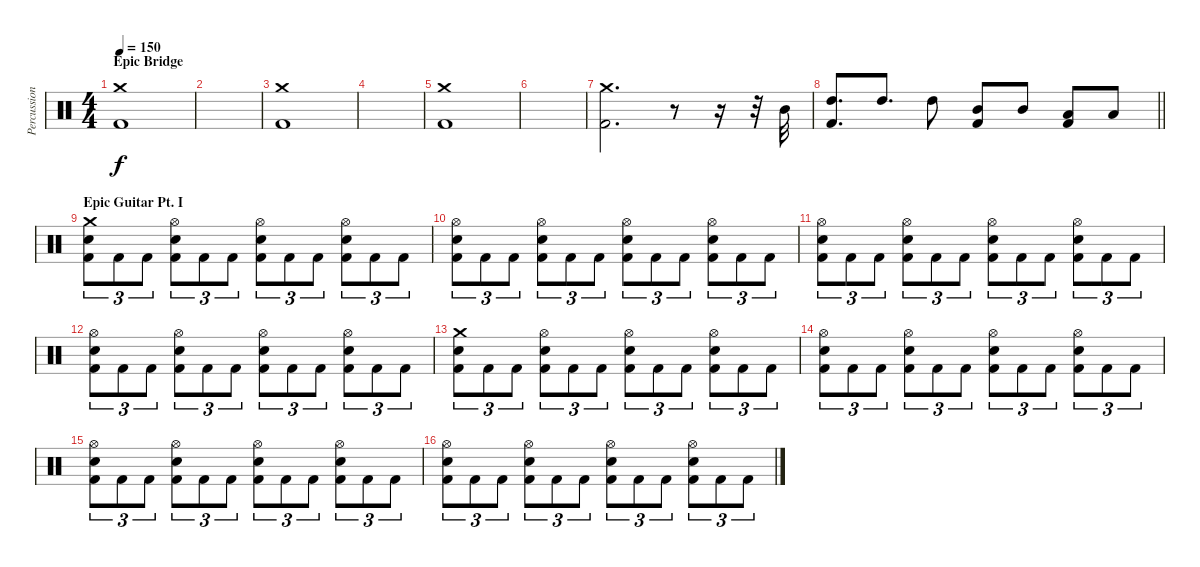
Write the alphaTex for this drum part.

\track ("Percussion" "Percussion") {instrument percussion}
\staff {score}
\articulation defaults
\ts (4 4)
\section ("" "Epic Bridge")
\tempo 150
\clef neutral
\ks c
("Crash medium (hit)" "Kick (hit) 2").1{dy f} |
|
("Crash medium (hit)" "Kick (hit) 2").1 |
|
("Crash medium (hit)" "Kick (hit) 2").1 |
|
("Crash medium (hit)" "Kick (hit) 2").2{d} r.8 r.16 r.32 "Mid Tom (hit)".32 |
\barLineRight lightlight
("High Tom (hit)" "Kick (hit) 2").8{d} "High Tom (hit)".8{d} "High Tom (hit)".8 ("Mid Tom (hit)" "Kick (hit) 2").8 "Mid Tom (hit)".8 ("Low Tom (hit)" "Kick (hit) 2").8 "Low Tom (hit)".8 |
\section ("" "Epic Guitar Pt. I")
("Crash medium (hit)" "Electric Snare (hit)" "Kick (hit) 2").8{tu (3 2)} "Kick (hit) 2".8{tu (3 2)} "Kick (hit) 2".8{tu (3 2)} ("Hi-Hat (open)" "Electric Snare (hit)" "Kick (hit) 2").8{tu (3 2)} "Kick (hit) 2".8{tu (3 2)} "Kick (hit) 2".8{tu (3 2)} ("Hi-Hat (open)" "Electric Snare (hit)" "Kick (hit) 2").8{tu (3 2)} "Kick (hit) 2".8{tu (3 2)} "Kick (hit) 2".8{tu (3 2)} ("Hi-Hat (open)" "Electric Snare (hit)" "Kick (hit) 2").8{tu (3 2)} "Kick (hit) 2".8{tu (3 2)} "Kick (hit) 2".8{tu (3 2)} |
("Hi-Hat (open)" "Electric Snare (hit)" "Kick (hit) 2").8{tu (3 2)} "Kick (hit) 2".8{tu (3 2)} "Kick (hit) 2".8{tu (3 2)} ("Hi-Hat (open)" "Electric Snare (hit)" "Kick (hit) 2").8{tu (3 2)} "Kick (hit) 2".8{tu (3 2)} "Kick (hit) 2".8{tu (3 2)} ("Hi-Hat (open)" "Electric Snare (hit)" "Kick (hit) 2").8{tu (3 2)} "Kick (hit) 2".8{tu (3 2)} "Kick (hit) 2".8{tu (3 2)} ("Hi-Hat (open)" "Electric Snare (hit)" "Kick (hit) 2").8{tu (3 2)} "Kick (hit) 2".8{tu (3 2)} "Kick (hit) 2".8{tu (3 2)} |
("Hi-Hat (open)" "Electric Snare (hit)" "Kick (hit) 2").8{tu (3 2)} "Kick (hit) 2".8{tu (3 2)} "Kick (hit) 2".8{tu (3 2)} ("Hi-Hat (open)" "Electric Snare (hit)" "Kick (hit) 2").8{tu (3 2)} "Kick (hit) 2".8{tu (3 2)} "Kick (hit) 2".8{tu (3 2)} ("Hi-Hat (open)" "Electric Snare (hit)" "Kick (hit) 2").8{tu (3 2)} "Kick (hit) 2".8{tu (3 2)} "Kick (hit) 2".8{tu (3 2)} ("Hi-Hat (open)" "Electric Snare (hit)" "Kick (hit) 2").8{tu (3 2)} "Kick (hit) 2".8{tu (3 2)} "Kick (hit) 2".8{tu (3 2)} |
("Hi-Hat (open)" "Electric Snare (hit)" "Kick (hit) 2").8{tu (3 2)} "Kick (hit) 2".8{tu (3 2)} "Kick (hit) 2".8{tu (3 2)} ("Hi-Hat (open)" "Electric Snare (hit)" "Kick (hit) 2").8{tu (3 2)} "Kick (hit) 2".8{tu (3 2)} "Kick (hit) 2".8{tu (3 2)} ("Hi-Hat (open)" "Electric Snare (hit)" "Kick (hit) 2").8{tu (3 2)} "Kick (hit) 2".8{tu (3 2)} "Kick (hit) 2".8{tu (3 2)} ("Hi-Hat (open)" "Electric Snare (hit)" "Kick (hit) 2").8{tu (3 2)} "Kick (hit) 2".8{tu (3 2)} "Kick (hit) 2".8{tu (3 2)} |
("Crash medium (hit)" "Electric Snare (hit)" "Kick (hit) 2").8{tu (3 2)} "Kick (hit) 2".8{tu (3 2)} "Kick (hit) 2".8{tu (3 2)} ("Hi-Hat (open)" "Electric Snare (hit)" "Kick (hit) 2").8{tu (3 2)} "Kick (hit) 2".8{tu (3 2)} "Kick (hit) 2".8{tu (3 2)} ("Hi-Hat (open)" "Electric Snare (hit)" "Kick (hit) 2").8{tu (3 2)} "Kick (hit) 2".8{tu (3 2)} "Kick (hit) 2".8{tu (3 2)} ("Hi-Hat (open)" "Electric Snare (hit)" "Kick (hit) 2").8{tu (3 2)} "Kick (hit) 2".8{tu (3 2)} "Kick (hit) 2".8{tu (3 2)} |
("Hi-Hat (open)" "Electric Snare (hit)" "Kick (hit) 2").8{tu (3 2)} "Kick (hit) 2".8{tu (3 2)} "Kick (hit) 2".8{tu (3 2)} ("Hi-Hat (open)" "Electric Snare (hit)" "Kick (hit) 2").8{tu (3 2)} "Kick (hit) 2".8{tu (3 2)} "Kick (hit) 2".8{tu (3 2)} ("Hi-Hat (open)" "Electric Snare (hit)" "Kick (hit) 2").8{tu (3 2)} "Kick (hit) 2".8{tu (3 2)} "Kick (hit) 2".8{tu (3 2)} ("Hi-Hat (open)" "Electric Snare (hit)" "Kick (hit) 2").8{tu (3 2)} "Kick (hit) 2".8{tu (3 2)} "Kick (hit) 2".8{tu (3 2)} |
("Hi-Hat (open)" "Electric Snare (hit)" "Kick (hit) 2").8{tu (3 2)} "Kick (hit) 2".8{tu (3 2)} "Kick (hit) 2".8{tu (3 2)} ("Hi-Hat (open)" "Electric Snare (hit)" "Kick (hit) 2").8{tu (3 2)} "Kick (hit) 2".8{tu (3 2)} "Kick (hit) 2".8{tu (3 2)} ("Hi-Hat (open)" "Electric Snare (hit)" "Kick (hit) 2").8{tu (3 2)} "Kick (hit) 2".8{tu (3 2)} "Kick (hit) 2".8{tu (3 2)} ("Hi-Hat (open)" "Electric Snare (hit)" "Kick (hit) 2").8{tu (3 2)} "Kick (hit) 2".8{tu (3 2)} "Kick (hit) 2".8{tu (3 2)} |
("Hi-Hat (open)" "Electric Snare (hit)" "Kick (hit) 2").8{tu (3 2)} "Kick (hit) 2".8{tu (3 2)} "Kick (hit) 2".8{tu (3 2)} ("Hi-Hat (open)" "Electric Snare (hit)" "Kick (hit) 2").8{tu (3 2)} "Kick (hit) 2".8{tu (3 2)} "Kick (hit) 2".8{tu (3 2)} ("Hi-Hat (open)" "Electric Snare (hit)" "Kick (hit) 2").8{tu (3 2)} "Kick (hit) 2".8{tu (3 2)} "Kick (hit) 2".8{tu (3 2)} ("Hi-Hat (open)" "Electric Snare (hit)" "Kick (hit) 2").8{tu (3 2)} "Kick (hit) 2".8{tu (3 2)} "Kick (hit) 2".8{tu (3 2)}
